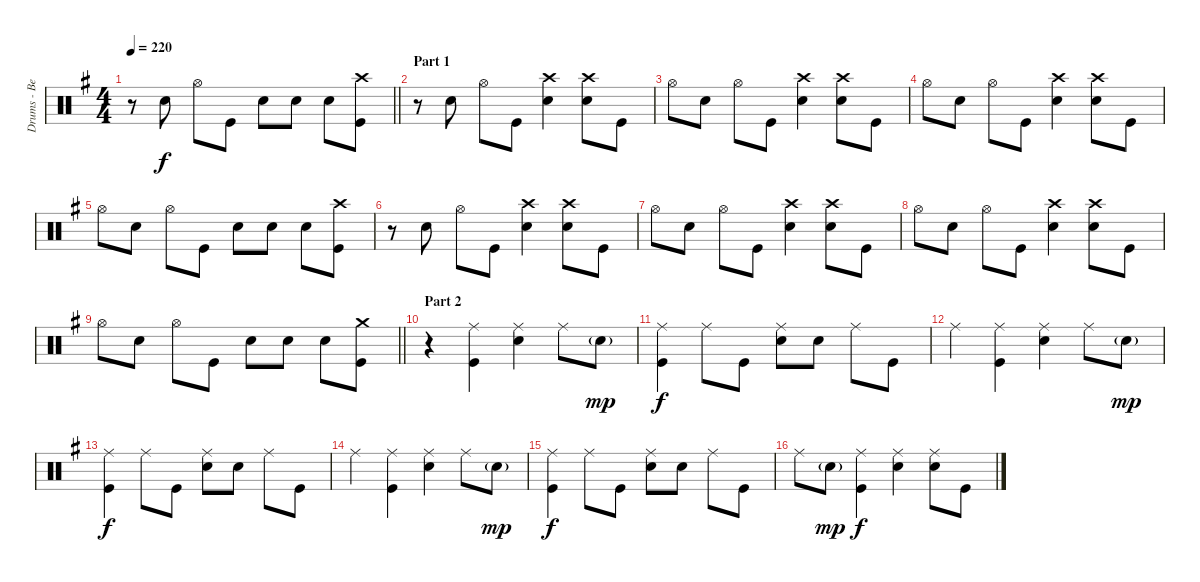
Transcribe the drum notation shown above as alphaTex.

\track ("Drums - Ben Johnston" "Drums - Be") {instrument percussion}
\staff {score}
\articulation defaults
\ts (4 4)
\tempo 220
\clef neutral
\barLineRight lightlight
\ks eminor
r.8{dy f} "Snare (hit) 2".8 "Hi-Hat (open)".8 "Kick (hit)".8 "Snare (hit) 2".8 "Snare (hit) 2".8 "Snare (hit) 2".8 ("Crash high (hit)" "Kick (hit)").8 |
\section ("" "Part 1")
r.8 "Snare (hit) 2".8 "Hi-Hat (open)".8 "Kick (hit)".8 ("Crash high (hit)" "Snare (hit) 2").4 ("Crash high (hit)" "Snare (hit) 2").8 "Kick (hit)".8 |
"Hi-Hat (open)".8 "Snare (hit) 2".8 "Hi-Hat (open)".8 "Kick (hit)".8 ("Crash high (hit)" "Snare (hit) 2").4 ("Crash high (hit)" "Snare (hit) 2").8 "Kick (hit)".8 |
"Hi-Hat (open)".8 "Snare (hit) 2".8 "Hi-Hat (open)".8 "Kick (hit)".8 ("Crash high (hit)" "Snare (hit) 2").4 ("Crash high (hit)" "Snare (hit) 2").8 "Kick (hit)".8 |
"Hi-Hat (open)".8 "Snare (hit) 2".8 "Hi-Hat (open)".8 "Kick (hit)".8 "Snare (hit) 2".8 "Snare (hit) 2".8 "Snare (hit) 2".8 ("Crash high (hit)" "Kick (hit)").8 |
r.8 "Snare (hit) 2".8 "Hi-Hat (open)".8 "Kick (hit)".8 ("Crash high (hit)" "Snare (hit) 2").4 ("Crash high (hit)" "Snare (hit) 2").8 "Kick (hit)".8 |
"Hi-Hat (open)".8 "Snare (hit) 2".8 "Hi-Hat (open)".8 "Kick (hit)".8 ("Crash high (hit)" "Snare (hit) 2").4 ("Crash high (hit)" "Snare (hit) 2").8 "Kick (hit)".8 |
"Hi-Hat (open)".8 "Snare (hit) 2".8 "Hi-Hat (open)".8 "Kick (hit)".8 ("Crash high (hit)" "Snare (hit) 2").4 ("Crash high (hit)" "Snare (hit) 2").8 "Kick (hit)".8 |
\barLineRight lightlight "Hi-Hat (open)".8 "Snare (hit) 2".8 "Hi-Hat (open)".8 "Kick (hit)".8 "Snare (hit) 2".8 "Snare (hit) 2".8 "Snare (hit) 2".8
("Crash medium (hit)" "Kick (hit)").8 |
\section ("" "Part 2")
r.4 ("Ride (middle)" "Kick (hit)").4 ("Ride (middle)" "Snare (hit) 2").4 "Ride (middle)".8 "Snare (hit) 2"{g}.8{dy mp} |
("Ride (middle)" "Kick (hit)").4{dy f} "Ride (middle)".8 "Kick (hit)".8 ("Ride (middle)" "Snare (hit) 2").8 "Snare (hit) 2".8 "Ride (middle)".8 "Kick (hit)".8 |
"Ride (middle)".4 ("Ride (middle)" "Kick (hit)").4 ("Ride (middle)" "Snare (hit) 2").4 "Ride (middle)".8 "Snare (hit) 2"{g}.8{dy mp} |
("Ride (middle)" "Kick (hit)").4{dy f} "Ride (middle)".8 "Kick (hit)".8 ("Ride (middle)" "Snare (hit) 2").8 "Snare (hit) 2".8 "Ride (middle)".8 "Kick (hit)".8 |
"Ride (middle)".4 ("Ride (middle)" "Kick (hit)").4 ("Ride (middle)" "Snare (hit) 2").4 "Ride (middle)".8 "Snare (hit) 2"{g}.8{dy mp} |
("Ride (middle)" "Kick (hit)").4{dy f} "Ride (middle)".8 "Kick (hit)".8 ("Ride (middle)" "Snare (hit) 2").8 "Snare (hit) 2".8 "Ride (middle)".8 "Kick (hit)".8 |
"Ride (middle)".8 "Snare (hit) 2"{g}.8{dy mp} ("Ride (middle)" "Kick (hit)").4{dy f} ("Ride (middle)" "Snare (hit) 2").4 ("Ride (middle)" "Snare (hit) 2").8 "Kick (hit)".8
